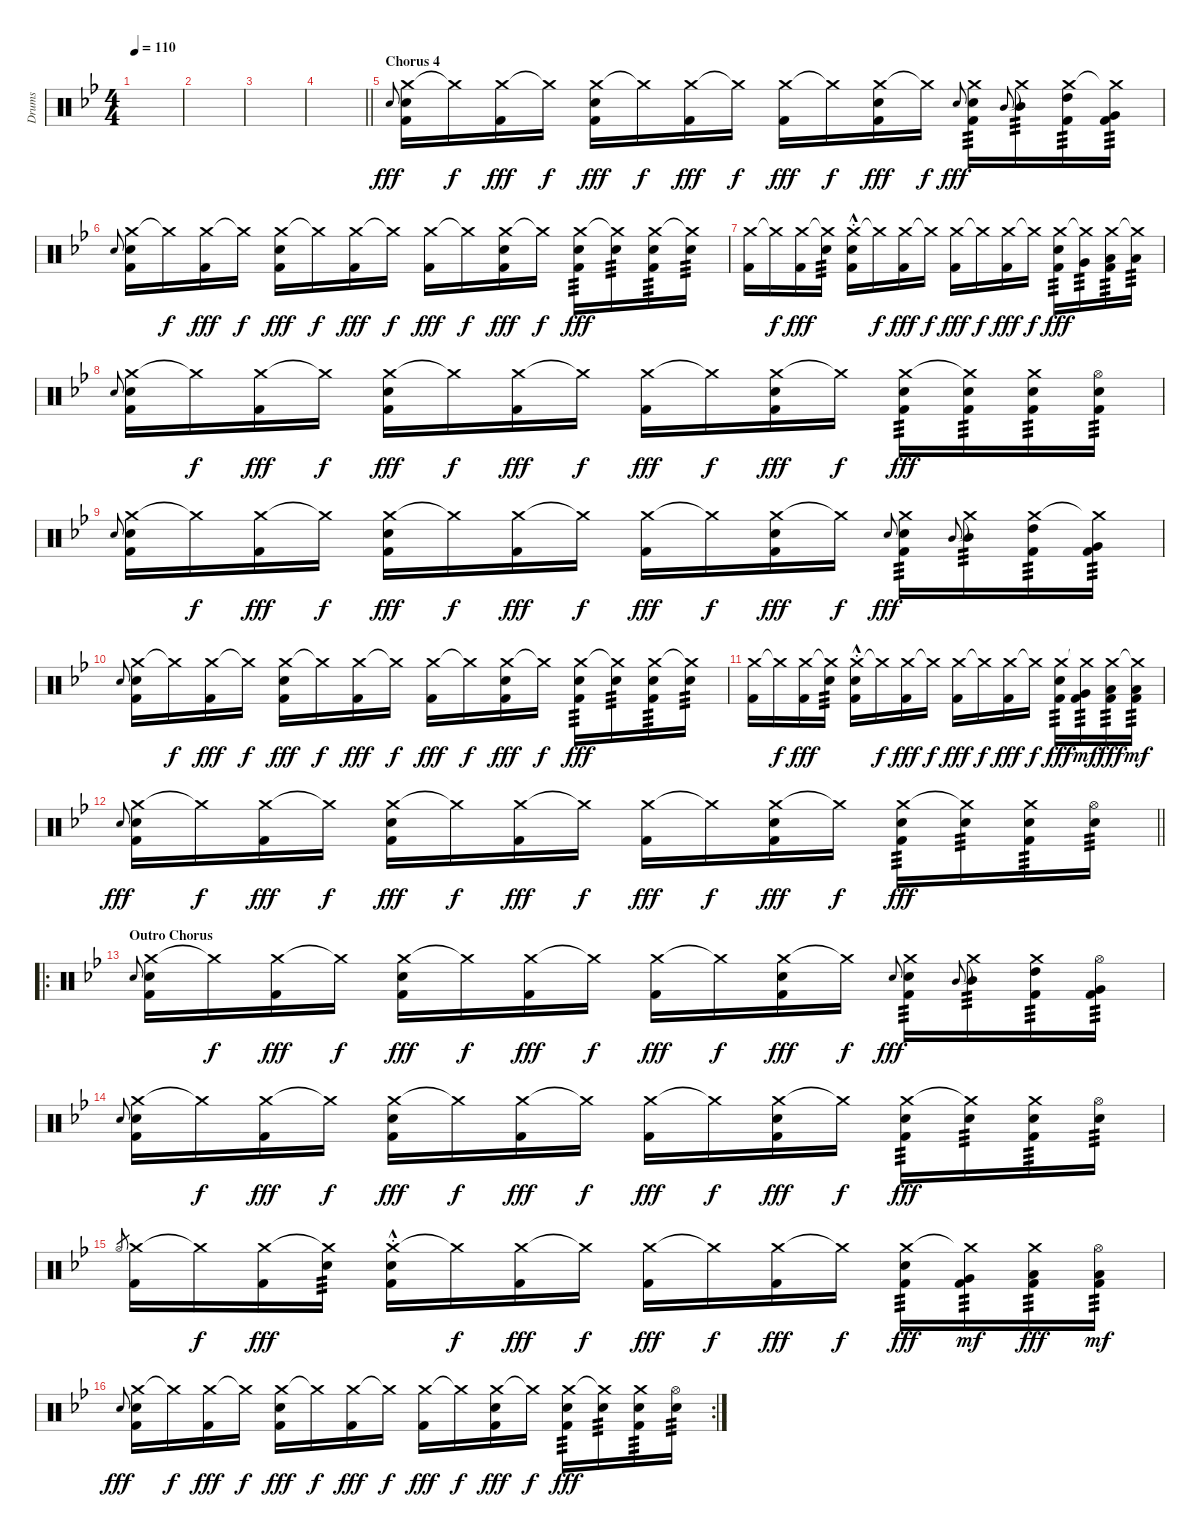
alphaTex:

\track ("Drums" "Drums") {instrument percussion}
\staff {score}
\articulation defaults
\ts (4 4)
\tempo 110
\clef neutral
\ks bb
|
|
|
\barLineRight lightlight
|
\section ("" "Chorus 4")
"Electric Snare (hit)"{h}.8{gr onbeat dy fff} ("Crash medium (hit)" "Electric Snare (hit)" "Kick (hit) 2").16 "Crash medium (hit)"{t}.16{dy f} ("Crash medium (hit)" "Kick (hit) 2").16{dy fff} "Crash medium (hit)"{t}.16{dy f} ("Crash medium (hit)" "Electric Snare (hit)" "Kick (hit) 2").16{dy fff} "Crash medium (hit)"{t}.16{dy f} ("Crash medium (hit)" "Kick (hit) 2").16{dy fff} "Crash medium (hit)"{t}.16{dy f} ("Crash medium (hit)" "Kick (hit) 2").16{dy fff} "Crash medium (hit)"{t}.16{dy f} ("Crash medium (hit)" "Electric Snare (hit)" "Kick (hit) 2").16{dy fff} "Crash medium (hit)"{t}.16{dy f} "Electric Snare (hit)"{h}.8{gr onbeat dy fff} ("Crash medium (hit)" "Electric Snare (hit)" "Kick (hit) 2").16{tp 3} "Mid Tom (hit)"{h}.8{gr onbeat} ("Crash medium (hit)"{t} "Mid Tom (hit)").16{tp 3} ("Crash medium (hit)" "High Tom (hit)" "Kick (hit) 2").16{tp 3} ("Crash medium (hit)"{t} "Very Low Tom (hit)" "Kick (hit) 2").16{tp 3} |
"Electric Snare (hit)"{h}.8{gr onbeat} ("Crash medium (hit)" "Electric Snare (hit)" "Kick (hit) 2").16 "Crash medium (hit)"{t}.16{dy f} ("Crash medium (hit)" "Kick (hit) 2").16{dy fff} "Crash medium (hit)"{t}.16{dy f} ("Crash medium (hit)" "Electric Snare (hit)" "Kick (hit) 2").16{dy fff} "Crash medium (hit)"{t}.16{dy f} ("Crash medium (hit)" "Kick (hit) 2").16{dy fff} "Crash medium (hit)"{t}.16{dy f} ("Crash medium (hit)" "Kick (hit) 2").16{dy fff} "Crash medium (hit)"{t}.16{dy f} ("Crash medium (hit)" "Electric Snare (hit)" "Kick (hit) 2").16{dy fff} "Crash medium (hit)"{t}.16{dy f} ("Crash medium (hit)" "Electric Snare (hit)" "Kick (hit) 2").16{tp 3 dy fff} ("Crash medium (hit)"{t} "Electric Snare (hit)").16{tp 3} ("Crash medium (hit)" "Electric Snare (hit)" "Kick (hit) 2").16{tp 3} ("Crash medium (hit)"{t} "Electric Snare (hit)").16{tp 3} |
("Crash medium (hit)" "Kick (hit) 2").16 "Crash medium (hit)"{t}.16{dy f} ("Crash medium (hit)" "Kick (hit) 2").16{dy fff} ("Crash medium (hit)"{t} "Electric Snare (hit)").16{tp 3} ("Crash medium (hit)" "Electric Snare (hit)"{hac st} "Kick (hit) 2").16 "Crash medium (hit)"{t}.16{dy f} ("Crash medium (hit)" "Kick (hit) 2").16{dy fff} "Crash medium (hit)"{t}.16{dy f} ("Crash medium (hit)" "Kick (hit) 2").16{dy fff} "Crash medium (hit)"{t}.16{dy f} ("Crash medium (hit)" "Kick (hit) 2").16{dy fff} "Crash medium (hit)"{t}.16{dy f} ("Crash medium (hit)" "Electric Snare (hit)" "Kick (hit) 2").16{tp 3 dy fff} ("Crash medium (hit)"{t} "Very Low Tom (hit)").16{tp 3} ("Crash medium (hit)" "Low Tom (hit)" "Kick (hit) 2").16{tp 3} ("Crash medium (hit)"{t} "Low Floor Tom (hit)").16{tp 3} |
"Electric Snare (hit)"{h}.8{gr onbeat} ("Crash medium (hit)" "Electric Snare (hit)" "Kick (hit) 2").16 "Crash medium (hit)"{t}.16{dy f} ("Crash medium (hit)" "Kick (hit) 2").16{dy fff} "Crash medium (hit)"{t}.16{dy f} ("Crash medium (hit)" "Electric Snare (hit)" "Kick (hit) 2").16{dy fff} "Crash medium (hit)"{t}.16{dy f} ("Crash medium (hit)" "Kick (hit) 2").16{dy fff} "Crash medium (hit)"{t}.16{dy f} ("Crash medium (hit)" "Kick (hit) 2").16{dy fff} "Crash medium (hit)"{t}.16{dy f} ("Crash medium (hit)" "Electric Snare (hit)" "Kick (hit) 2").16{dy fff} "Crash medium (hit)"{t}.16{dy f} ("Crash medium (hit)" "Electric Snare (hit)" "Kick (hit) 2").16{tp 3 dy fff} ("Crash medium (hit)"{t} "Electric Snare (hit)" "Kick (hit) 2").16{tp 3} ("Crash medium (hit)" "Electric Snare (hit)" "Kick (hit) 2").16{tp 3} ("Hi-Hat (open)" "Electric Snare (hit)" "Kick (hit) 2").16{tp 3} |
"Electric Snare (hit)"{h}.8{gr onbeat} ("Crash medium (hit)" "Electric Snare (hit)" "Kick (hit) 2").16 "Crash medium (hit)"{t}.16{dy f} ("Crash medium (hit)" "Kick (hit) 2").16{dy fff} "Crash medium (hit)"{t}.16{dy f} ("Crash medium (hit)" "Electric Snare (hit)" "Kick (hit) 2").16{dy fff} "Crash medium (hit)"{t}.16{dy f} ("Crash medium (hit)" "Kick (hit) 2").16{dy fff} "Crash medium (hit)"{t}.16{dy f} ("Crash medium (hit)" "Kick (hit) 2").16{dy fff} "Crash medium (hit)"{t}.16{dy f} ("Crash medium (hit)" "Electric Snare (hit)" "Kick (hit) 2").16{dy fff} "Crash medium (hit)"{t}.16{dy f} "Electric Snare (hit)"{h}.8{gr onbeat dy fff} ("Crash medium (hit)" "Electric Snare (hit)" "Kick (hit) 2").16{tp 3} "Mid Tom (hit)"{h}.8{gr onbeat} ("Crash medium (hit)"{t} "Mid Tom (hit)").16{tp 3} ("Crash medium (hit)" "High Tom (hit)" "Kick (hit) 2").16{tp 3} ("Crash medium (hit)"{t} "Very Low Tom (hit)" "Kick (hit) 2").16{tp 3} |
"Electric Snare (hit)"{h}.8{gr onbeat} ("Crash medium (hit)" "Electric Snare (hit)" "Kick (hit) 2").16 "Crash medium (hit)"{t}.16{dy f} ("Crash medium (hit)" "Kick (hit) 2").16{dy fff} "Crash medium (hit)"{t}.16{dy f} ("Crash medium (hit)" "Electric Snare (hit)" "Kick (hit) 2").16{dy fff} "Crash medium (hit)"{t}.16{dy f} ("Crash medium (hit)" "Kick (hit) 2").16{dy fff} "Crash medium (hit)"{t}.16{dy f} ("Crash medium (hit)" "Kick (hit) 2").16{dy fff} "Crash medium (hit)"{t}.16{dy f} ("Crash medium (hit)" "Electric Snare (hit)" "Kick (hit) 2").16{dy fff} "Crash medium (hit)"{t}.16{dy f} ("Crash medium (hit)" "Electric Snare (hit)" "Kick (hit) 2").16{tp 3 dy fff} ("Crash medium (hit)"{t} "Electric Snare (hit)").16{tp 3} ("Crash medium (hit)" "Electric Snare (hit)" "Kick (hit) 2").16{tp 3} ("Crash medium (hit)"{t} "Electric Snare (hit)").16{tp 3} |
("Crash medium (hit)" "Kick (hit) 2").16 "Crash medium (hit)"{t}.16{dy f} ("Crash medium (hit)" "Kick (hit) 2").16{dy fff} ("Crash medium (hit)"{t} "Electric Snare (hit)").16{tp 3} ("Crash medium (hit)" "Electric Snare (hit)"{hac st} "Kick (hit) 2").16 "Crash medium (hit)"{t}.16{dy f} ("Crash medium (hit)" "Kick (hit) 2").16{dy fff} "Crash medium (hit)"{t}.16{dy f} ("Crash medium (hit)" "Kick (hit) 2").16{dy fff} "Crash medium (hit)"{t}.16{dy f} ("Crash medium (hit)" "Kick (hit) 2").16{dy fff} "Crash medium (hit)"{t}.16{dy f} ("Crash medium (hit)" "Electric Snare (hit)" "Kick (hit) 2").16{tp 3 dy fff} ("Crash medium (hit)"{t} "Very Low Tom (hit)" "Kick (hit) 2").16{tp 3 dy mf} ("Crash medium (hit)" "Low Tom (hit)" "Kick (hit) 2").16{tp 3 dy fff} ("Crash medium (hit)"{t} "Low Floor Tom (hit)" "Kick (hit) 2").16{tp 3 dy mf} |
\barLineRight lightlight "Electric Snare (hit)"{h}.8{gr onbeat dy fff}
("Crash medium (hit)" "Electric Snare (hit)" "Kick (hit) 2").16 "Crash medium (hit)"{t}.16{dy f} ("Crash medium (hit)" "Kick (hit) 2").16{dy fff} "Crash medium (hit)"{t}.16{dy f} ("Crash medium (hit)" "Electric Snare (hit)" "Kick (hit) 2").16{dy fff} "Crash medium (hit)"{t}.16{dy f} ("Crash medium (hit)" "Kick (hit) 2").16{dy fff} "Crash medium (hit)"{t}.16{dy f} ("Crash medium (hit)" "Kick (hit) 2").16{dy fff} "Crash medium (hit)"{t}.16{dy f} ("Crash medium (hit)" "Electric Snare (hit)" "Kick (hit) 2").16{dy fff} "Crash medium (hit)"{t}.16{dy f} ("Crash medium (hit)" "Electric Snare (hit)" "Kick (hit) 2").16{tp 3 dy fff} ("Crash medium (hit)"{t} "Electric Snare (hit)").16{tp 3} ("Crash medium (hit)" "Electric Snare (hit)" "Kick (hit) 2").16{tp 3} ("Hi-Hat (open)" "Electric Snare (hit)").16{tp 3} |
\ro
\section ("" "Outro Chorus")
"Electric Snare (hit)"{h}.8{gr onbeat} ("Crash medium (hit)" "Electric Snare (hit)" "Kick (hit) 2").16 "Crash medium (hit)"{t}.16{dy f} ("Crash medium (hit)" "Kick (hit) 2").16{dy fff} "Crash medium (hit)"{t}.16{dy f} ("Crash medium (hit)" "Electric Snare (hit)" "Kick (hit) 2").16{dy fff} "Crash medium (hit)"{t}.16{dy f} ("Crash medium (hit)" "Kick (hit) 2").16{dy fff} "Crash medium (hit)"{t}.16{dy f} ("Crash medium (hit)" "Kick (hit) 2").16{dy fff} "Crash medium (hit)"{t}.16{dy f} ("Crash medium (hit)" "Electric Snare (hit)" "Kick (hit) 2").16{dy fff} "Crash medium (hit)"{t}.16{dy f} "Electric Snare (hit)"{h}.8{gr onbeat dy fff} ("Crash medium (hit)" "Electric Snare (hit)" "Kick (hit) 2").16{tp 3} "Mid Tom (hit)"{h}.8{gr onbeat} ("Crash medium (hit)"{t} "Mid Tom (hit)").16{tp 3} ("Crash medium (hit)" "High Tom (hit)" "Kick (hit) 2").16{tp 3} ("Hi-Hat (open)" "Very Low Tom (hit)" "Kick (hit) 2").16{tp 3} |
"Electric Snare (hit)"{h}.8{gr onbeat} ("Crash medium (hit)" "Electric Snare (hit)" "Kick (hit) 2").16 "Crash medium (hit)"{t}.16{dy f} ("Crash medium (hit)" "Kick (hit) 2").16{dy fff} "Crash medium (hit)"{t}.16{dy f} ("Crash medium (hit)" "Electric Snare (hit)" "Kick (hit) 2").16{dy fff} "Crash medium (hit)"{t}.16{dy f} ("Crash medium (hit)" "Kick (hit) 2").16{dy fff} "Crash medium (hit)"{t}.16{dy f} ("Crash medium (hit)" "Kick (hit) 2").16{dy fff} "Crash medium (hit)"{t}.16{dy f} ("Crash medium (hit)" "Electric Snare (hit)" "Kick (hit) 2").16{dy fff} "Crash medium (hit)"{t}.16{dy f} ("Crash medium (hit)" "Electric Snare (hit)" "Kick (hit) 2").16{tp 3 dy fff} ("Crash medium (hit)"{t} "Electric Snare (hit)").16{tp 3} ("Crash medium (hit)" "Electric Snare (hit)" "Kick (hit) 2").16{tp 3} ("Hi-Hat (open)" "Electric Snare (hit)").16{tp 3} |
"Hi-Hat (open)"{h}.8{gr} ("Crash medium (hit)" "Kick (hit) 2").16 "Crash medium (hit)"{t}.16{dy f} ("Crash medium (hit)" "Kick (hit) 2").16{dy fff} ("Crash medium (hit)"{t} "Electric Snare (hit)").16{tp 3} ("Crash medium (hit)" "Electric Snare (hit)"{hac st} "Kick (hit) 2").16 "Crash medium (hit)"{t}.16{dy f} ("Crash medium (hit)" "Kick (hit) 2").16{dy fff} "Crash medium (hit)"{t}.16{dy f} ("Crash medium (hit)" "Kick (hit) 2").16{dy fff} "Crash medium (hit)"{t}.16{dy f} ("Crash medium (hit)" "Kick (hit) 2").16{dy fff} "Crash medium (hit)"{t}.16{dy f} ("Crash medium (hit)" "Electric Snare (hit)" "Kick (hit) 2").16{tp 3 dy fff} ("Crash medium (hit)"{t} "Very Low Tom (hit)" "Kick (hit) 2").16{tp 3 dy mf} ("Crash medium (hit)" "Low Tom (hit)" "Kick (hit) 2").16{tp 3 dy fff} ("Hi-Hat (open)" "Low Floor Tom (hit)" "Kick (hit) 2").16{tp 3 dy mf} |
\rc 2 "Electric Snare (hit)"{h}.8{gr onbeat dy fff}
("Crash medium (hit)" "Electric Snare (hit)" "Kick (hit) 2").16 "Crash medium (hit)"{t}.16{dy f} ("Crash medium (hit)" "Kick (hit) 2").16{dy fff} "Crash medium (hit)"{t}.16{dy f} ("Crash medium (hit)" "Electric Snare (hit)" "Kick (hit) 2").16{dy fff} "Crash medium (hit)"{t}.16{dy f} ("Crash medium (hit)" "Kick (hit) 2").16{dy fff} "Crash medium (hit)"{t}.16{dy f} ("Crash medium (hit)" "Kick (hit) 2").16{dy fff} "Crash medium (hit)"{t}.16{dy f} ("Crash medium (hit)" "Electric Snare (hit)" "Kick (hit) 2").16{dy fff} "Crash medium (hit)"{t}.16{dy f} ("Crash medium (hit)" "Electric Snare (hit)" "Kick (hit) 2").16{tp 3 dy fff} ("Crash medium (hit)"{t} "Electric Snare (hit)").16{tp 3} ("Crash medium (hit)" "Electric Snare (hit)" "Kick (hit) 2").16{tp 3} ("Hi-Hat (open)" "Electric Snare (hit)").16{tp 3}
